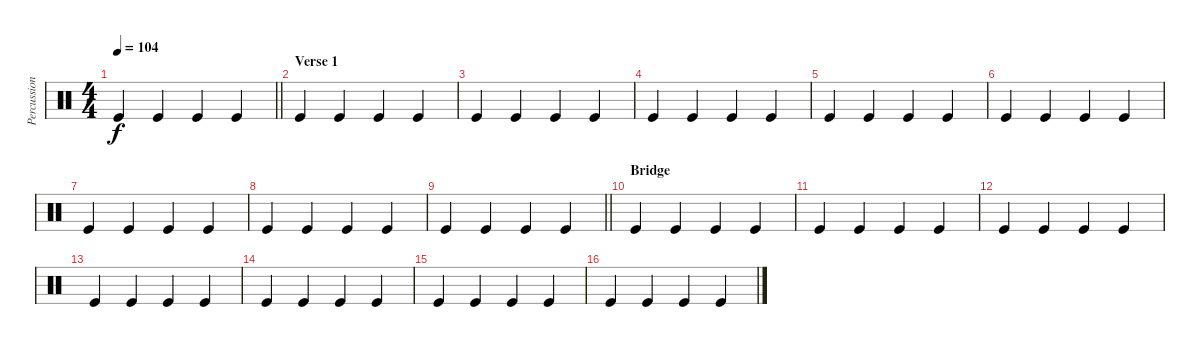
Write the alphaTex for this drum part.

\track ("Percussioni" "Percussion") {instrument percussion}
\staff {score}
\articulation defaults
\ts (4 4)
\tempo 104
\clef neutral
\barLineRight lightlight
\ks c "Kick (hit)".4{dy f} "Kick (hit)".4 "Kick (hit)".4 "Kick (hit)".4
|
\section ("" "Verse 1")
"Kick (hit)".4 "Kick (hit)".4 "Kick (hit)".4 "Kick (hit)".4 |
"Kick (hit)".4 "Kick (hit)".4 "Kick (hit)".4 "Kick (hit)".4 |
"Kick (hit)".4 "Kick (hit)".4 "Kick (hit)".4 "Kick (hit)".4 |
"Kick (hit)".4 "Kick (hit)".4 "Kick (hit)".4 "Kick (hit)".4 |
"Kick (hit)".4 "Kick (hit)".4 "Kick (hit)".4 "Kick (hit)".4 |
"Kick (hit)".4 "Kick (hit)".4 "Kick (hit)".4 "Kick (hit)".4 |
"Kick (hit)".4 "Kick (hit)".4 "Kick (hit)".4 "Kick (hit)".4 |
\barLineRight lightlight "Kick (hit)".4 "Kick (hit)".4 "Kick (hit)".4 "Kick (hit)".4
|
\section ("" "Bridge")
"Kick (hit)".4 "Kick (hit)".4 "Kick (hit)".4 "Kick (hit)".4 |
"Kick (hit)".4 "Kick (hit)".4 "Kick (hit)".4 "Kick (hit)".4 |
"Kick (hit)".4 "Kick (hit)".4 "Kick (hit)".4 "Kick (hit)".4 |
"Kick (hit)".4 "Kick (hit)".4 "Kick (hit)".4 "Kick (hit)".4 |
"Kick (hit)".4 "Kick (hit)".4 "Kick (hit)".4 "Kick (hit)".4 |
"Kick (hit)".4 "Kick (hit)".4 "Kick (hit)".4 "Kick (hit)".4 |
"Kick (hit)".4 "Kick (hit)".4 "Kick (hit)".4 "Kick (hit)".4
